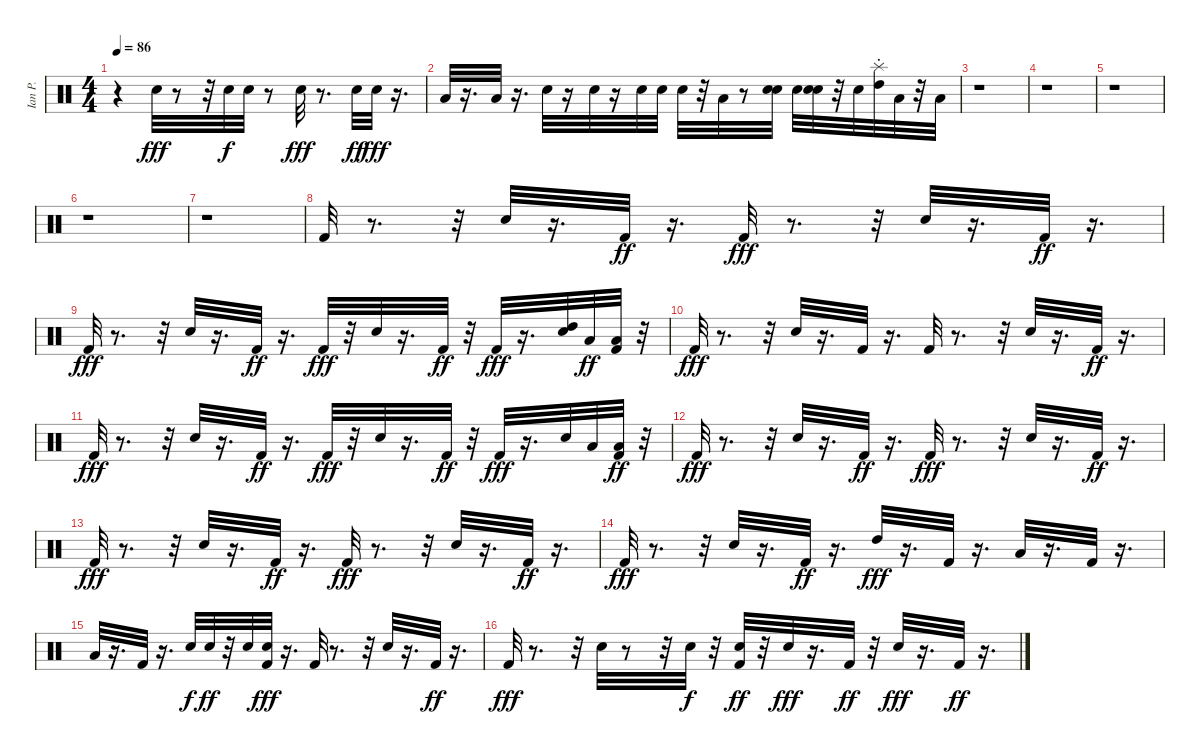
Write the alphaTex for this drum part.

\track ("Ian P." "Ian P.") {instrument percussion}
\staff {score}
\articulation defaults
\ts (4 4)
\tempo 86
\clef neutral
\ks c
r.4{dy mf} "Snare (hit) 2".32{dy fff} r.8 r.32 "Snare (hit) 2".32{dy f} "Snare (hit) 2".32 r.8 "Snare (hit) 2".32{dy fff} r.8{d} "Snare (hit) 2".32{dy ff} "Snare (hit) 2".32{dy fff} r.16{d} |
"Low Floor Tom (hit)".32 r.16{d} "Low Floor Tom (hit)".32 r.16{d} "Snare (hit) 2".32 r.16 "Snare (hit) 2".32 r.16 "Snare (hit) 2".32 "Snare (hit) 2".32 "Snare (hit) 2".32 r.32 "Low Floor Tom (hit)".32 r.8 ("Snare (hit) 2" "Snare (hit) 2").32 "Snare (hit) 2".32 ("Snare (hit) 2" "Snare (hit) 2").32 r.32 "Snare (hit) 2".32 ("Splash (choke)" "High Tom (hit)").32 "Low Tom (hit)".32 r.32 "Low Floor Tom (hit)".32 |
r.1 |
r.1 |
r.1 |
r.1 |
r.1 |
"Kick (hit) 2".32{volume 16 balance 8} r.8{d} r.32 "Snare (hit) 2".32 r.16{d} "Kick (hit) 2".32{dy ff} r.16{d} "Kick (hit) 2".32{dy fff} r.8{d} r.32 "Snare (hit) 2".32 r.16{d} "Kick (hit) 2".32{dy ff} r.16{d} |
"Kick (hit) 2".32{dy fff} r.8{d} r.32 "Snare (hit) 2".32 r.16{d} "Kick (hit) 2".32{dy ff} r.16{d} "Kick (hit) 2".32{dy fff} r.32 "Snare (hit) 2".32 r.16{d} "Kick (hit) 2".32{dy ff} r.32 "Kick (hit) 2".32{dy fff} r.16{d} ("Snare (hit) 2" "High Tom (hit)").32 "Low Tom (hit)".32{dy ff} ("Low Floor Tom (hit)" "Kick (hit) 2").32 r.32 |
"Kick (hit) 2".32{dy fff} r.8{d} r.32 "Snare (hit) 2".32 r.16{d} "Kick (hit) 2".32 r.16{d} "Kick (hit) 2".32 r.8{d} r.32 "Snare (hit) 2".32 r.16{d} "Kick (hit) 2".32{dy ff} r.16{d} |
"Kick (hit) 2".32{dy fff} r.8{d} r.32 "Snare (hit) 2".32 r.16{d} "Kick (hit) 2".32{dy ff} r.16{d} "Kick (hit) 2".32{dy fff} r.32 "Snare (hit) 2".32 r.16{d} "Kick (hit) 2".32{dy ff} r.32 "Kick (hit) 2".32{dy fff} r.16{d} "Snare (hit) 2".32 "Low Tom (hit)".32 ("Low Floor Tom (hit)" "Kick (hit) 2").32{dy ff} r.32 |
"Kick (hit) 2".32{dy fff} r.8{d} r.32 "Snare (hit) 2".32 r.16{d} "Kick (hit) 2".32{dy ff} r.16{d} "Kick (hit) 2".32{dy fff} r.8{d} r.32 "Snare (hit) 2".32 r.16{d} "Kick (hit) 2".32{dy ff} r.16{d} |
"Kick (hit) 2".32{dy fff} r.8{d} r.32 "Snare (hit) 2".32 r.16{d} "Kick (hit) 2".32{dy ff} r.16{d} "Kick (hit) 2".32{dy fff} r.8{d} r.32 "Snare (hit) 2".32 r.16{d} "Kick (hit) 2".32{dy ff} r.16{d} |
"Kick (hit) 2".32{dy fff} r.8{d} r.32 "Snare (hit) 2".32 r.16{d} "Kick (hit) 2".32{dy ff} r.16{d} "High Tom (hit)".32{dy fff} r.16{d} "Kick (hit) 2".32 r.16{d} "Low Tom (hit)".32 r.16{d} "Kick (hit) 2".32 r.16{d} |
"Low Floor Tom (hit)".32 r.16{d} "Kick (hit) 2".32 r.16{d} "Snare (hit) 2".32{dy f} "Snare (hit) 2".32{dy ff} r.32 "Snare (hit) 2".32 ("Snare (hit) 2" "Kick (hit) 2").32{dy fff} r.16{d} "Kick (hit) 2".32 r.8{d} r.32 "Snare (hit) 2".32 r.16{d} "Kick (hit) 2".32{dy ff} r.16{d} |
"Kick (hit) 2".32{dy fff} r.8{d} r.32 "Snare (hit) 2".32 r.8 r.32 "Snare (hit) 2".32{dy f} r.32 ("Kick (hit) 2" "Snare (hit) 2").32{dy ff} r.32 "Snare (hit) 2".32{dy fff} r.16{d} "Kick (hit) 2".32{dy ff} r.32 "Snare (hit) 2".32{dy fff} r.16{d} "Kick (hit) 2".32{dy ff} r.16{d}
